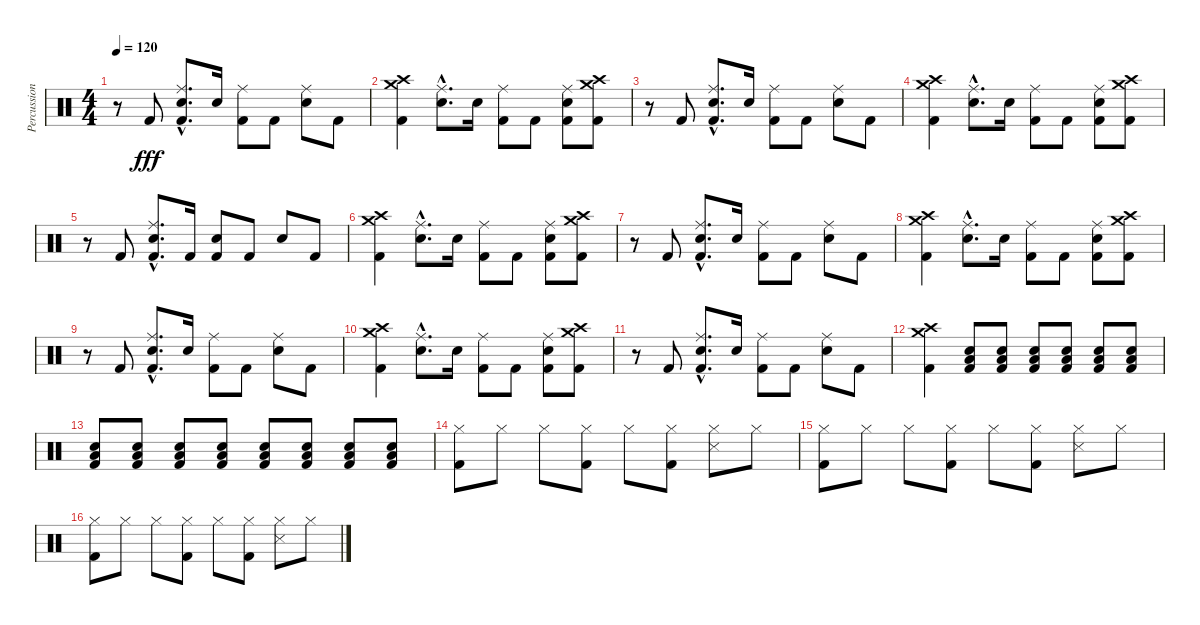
\track ("Percussion" "Percussion") {instrument percussion}
\staff {score}
\articulation defaults
\ts (4 4)
\tempo 120
\clef neutral
\ks c
r.8{dy fff} "Kick (hit) 2".8 ("Ride (middle)"{hac} "Snare (hit) 2"{hac} "Kick (hit) 2"{hac}).8{d} "Snare (hit) 2".16 ("Ride (middle)" "Kick (hit) 2").8 "Kick (hit) 2".8 ("Ride (middle)" "Snare (hit) 2").8 "Kick (hit) 2".8 |
("Crash high (hit)" "Crash medium (hit)" "Kick (hit) 2").4 ("Ride (middle)"{hac} "Snare (hit) 2"{hac}).8{d} "Snare (hit) 2".16 ("Ride (middle)" "Kick (hit) 2").8 "Kick (hit) 2".8 ("Ride (middle)" "Snare (hit) 2" "Kick (hit) 2").8 ("Crash medium (hit)" "Crash high (hit)" "Kick (hit) 2").8 |
r.8 "Kick (hit) 2".8 ("Ride (middle)"{hac} "Snare (hit) 2"{hac} "Kick (hit) 2"{hac}).8{d} "Snare (hit) 2".16 ("Ride (middle)" "Kick (hit) 2").8 "Kick (hit) 2".8 ("Ride (middle)" "Snare (hit) 2").8 "Kick (hit) 2".8 |
("Crash high (hit)" "Crash medium (hit)" "Kick (hit) 2").4 ("Ride (middle)"{hac} "Snare (hit) 2"{hac}).8{d} "Snare (hit) 2".16 ("Ride (middle)" "Kick (hit) 2").8 "Kick (hit) 2".8 ("Ride (middle)" "Snare (hit) 2" "Kick (hit) 2").8 ("Crash medium (hit)" "Crash high (hit)" "Kick (hit) 2").8 |
r.8 "Kick (hit) 2".8 ("Ride (middle)"{hac} "Snare (hit) 2"{hac} "Kick (hit) 2"{hac}).8{d} "Kick (hit) 2".16 ("Snare (hit) 2" "Kick (hit) 2").8 "Kick (hit) 2".8 "Snare (hit) 2".8 "Kick (hit) 2".8 |
("Crash high (hit)" "Crash medium (hit)" "Kick (hit) 2").4 ("Ride (middle)"{hac} "Snare (hit) 2"{hac}).8{d} "Snare (hit) 2".16 ("Ride (middle)" "Kick (hit) 2").8 "Kick (hit) 2".8 ("Ride (middle)" "Snare (hit) 2" "Kick (hit) 2").8 ("Crash medium (hit)" "Crash high (hit)" "Kick (hit) 2").8 |
r.8 "Kick (hit) 2".8 ("Ride (middle)"{hac} "Snare (hit) 2"{hac} "Kick (hit) 2"{hac}).8{d} "Snare (hit) 2".16 ("Ride (middle)" "Kick (hit) 2").8 "Kick (hit) 2".8 ("Ride (middle)" "Snare (hit) 2").8 "Kick (hit) 2".8 |
("Crash high (hit)" "Crash medium (hit)" "Kick (hit) 2").4 ("Ride (middle)"{hac} "Snare (hit) 2"{hac}).8{d} "Snare (hit) 2".16 ("Ride (middle)" "Kick (hit) 2").8 "Kick (hit) 2".8 ("Ride (middle)" "Snare (hit) 2" "Kick (hit) 2").8 ("Crash high (hit)" "Crash medium (hit)" "Kick (hit) 2").8 |
r.8 "Kick (hit) 2".8 ("Ride (middle)"{hac} "Snare (hit) 2"{hac} "Kick (hit) 2"{hac}).8{d} "Snare (hit) 2".16 ("Ride (middle)" "Kick (hit) 2").8 "Kick (hit) 2".8 ("Ride (middle)" "Snare (hit) 2").8 "Kick (hit) 2".8 |
("Crash high (hit)" "Crash medium (hit)" "Kick (hit) 2").4 ("Ride (middle)"{hac} "Snare (hit) 2"{hac}).8{d} "Snare (hit) 2".16 ("Ride (middle)" "Kick (hit) 2").8 "Kick (hit) 2".8 ("Ride (middle)" "Snare (hit) 2" "Kick (hit) 2").8 ("Crash medium (hit)" "Crash high (hit)" "Kick (hit) 2").8 |
r.8 "Kick (hit) 2".8 ("Ride (middle)"{hac} "Snare (hit) 2"{hac} "Kick (hit) 2"{hac}).8{d} "Snare (hit) 2".16 ("Ride (middle)" "Kick (hit) 2").8 "Kick (hit) 2".8 ("Ride (middle)" "Snare (hit) 2").8 "Kick (hit) 2".8 |
("Crash high (hit)" "Crash medium (hit)" "Kick (hit) 2").4 ("Low Floor Tom (hit)" "Snare (hit) 2" "Kick (hit) 2").8 ("Low Floor Tom (hit)" "Snare (hit) 2" "Kick (hit) 2").8 ("Low Floor Tom (hit)" "Snare (hit) 2" "Kick (hit) 2").8 ("Low Floor Tom (hit)" "Snare (hit) 2" "Kick (hit) 2").8 ("Low Floor Tom (hit)" "Snare (hit) 2" "Kick (hit) 2").8 ("Low Floor Tom (hit)" "Snare (hit) 2" "Kick (hit) 2").8 |
("Low Floor Tom (hit)" "Snare (hit) 2" "Kick (hit) 2").8 ("Low Floor Tom (hit)" "Snare (hit) 2" "Kick (hit) 2").8 ("Low Floor Tom (hit)" "Snare (hit) 2" "Kick (hit) 2").8 ("Low Floor Tom (hit)" "Snare (hit) 2" "Kick (hit) 2").8 ("Low Floor Tom (hit)" "Snare (hit) 2" "Kick (hit) 2").8 ("Low Floor Tom (hit)" "Snare (hit) 2" "Kick (hit) 2").8 ("Low Floor Tom (hit)" "Snare (hit) 2" "Kick (hit) 2").8 ("Low Floor Tom (hit)" "Snare (hit) 2" "Kick (hit) 2").8 |
("Hi-Hat (closed)" "Kick (hit) 2").8 "Hi-Hat (closed)".8 "Hi-Hat (closed)".8 ("Hi-Hat (closed)" "Kick (hit) 2").8 "Hi-Hat (closed)".8 ("Hi-Hat (closed)" "Kick (hit) 2").8 ("Hi-Hat (closed)" "Snare (side stick) 3").8 "Hi-Hat (closed)".8 |
("Hi-Hat (closed)" "Kick (hit) 2").8 "Hi-Hat (closed)".8 "Hi-Hat (closed)".8 ("Hi-Hat (closed)" "Kick (hit) 2").8 "Hi-Hat (closed)".8 ("Hi-Hat (closed)" "Kick (hit) 2").8 ("Hi-Hat (closed)" "Snare (side stick) 3").8 "Hi-Hat (closed)".8 |
("Hi-Hat (closed)" "Kick (hit) 2").8 "Hi-Hat (closed)".8 "Hi-Hat (closed)".8 ("Hi-Hat (closed)" "Kick (hit) 2").8 "Hi-Hat (closed)".8 ("Hi-Hat (closed)" "Kick (hit) 2").8 ("Hi-Hat (closed)" "Snare (side stick) 3").8 "Hi-Hat (closed)".8
